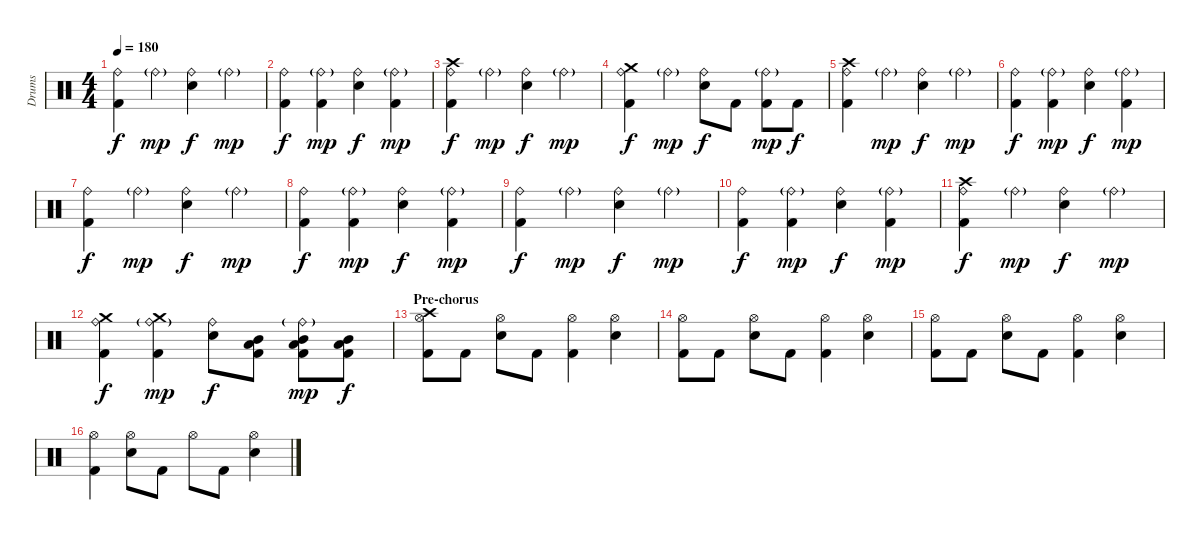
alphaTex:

\track ("Drums" "Drums") {instrument percussion}
\staff {score}
\articulation defaults
\ts (4 4)
\tempo 180
\clef neutral
\ks c
("Ride (bell)" "Kick (hit) 2").4{dy f} "Ride (bell)"{g}.4{dy mp} ("Ride (bell)" "Electric Snare (hit)").4{dy f} "Ride (bell)"{g}.4{dy mp} |
("Ride (bell)" "Kick (hit) 2").4{dy f} ("Ride (bell)"{g} "Kick (hit) 2").4{dy mp} ("Ride (bell)" "Electric Snare (hit)").4{dy f} ("Ride (bell)"{g} "Kick (hit) 2").4{dy mp} |
("Ride (bell)" "Kick (hit) 2" "Crash high (hit)").4{dy f} "Ride (bell)"{g}.4{dy mp} ("Ride (bell)" "Electric Snare (hit)").4{dy f} "Ride (bell)"{g}.4{dy mp} |
("Ride (bell)" "Kick (hit) 2" "Crash medium (hit)").4{dy f} "Ride (bell)"{g}.4{dy mp} ("Ride (bell)" "Electric Snare (hit)").8{dy f} "Kick (hit) 2".8 ("Ride (bell)"{g} "Kick (hit) 2").8{dy mp} "Kick (hit) 2".8{dy f} |
("Ride (bell)" "Kick (hit) 2" "Crash high (hit)").4 "Ride (bell)"{g}.4{dy mp} ("Ride (bell)" "Electric Snare (hit)").4{dy f} "Ride (bell)"{g}.4{dy mp} |
("Ride (bell)" "Kick (hit) 2").4{dy f} ("Ride (bell)"{g} "Kick (hit) 2").4{dy mp} ("Ride (bell)" "Electric Snare (hit)").4{dy f} ("Ride (bell)"{g} "Kick (hit) 2").4{dy mp} |
("Ride (bell)" "Kick (hit) 2").4{dy f} "Ride (bell)"{g}.4{dy mp} ("Ride (bell)" "Electric Snare (hit)").4{dy f} "Ride (bell)"{g}.4{dy mp} |
("Ride (bell)" "Kick (hit) 2").4{dy f} ("Ride (bell)"{g} "Kick (hit) 2").4{dy mp} ("Ride (bell)" "Electric Snare (hit)").4{dy f} ("Ride (bell)"{g} "Kick (hit) 2").4{dy mp} |
("Ride (bell)" "Kick (hit) 2").4{dy f} "Ride (bell)"{g}.4{dy mp} ("Ride (bell)" "Electric Snare (hit)").4{dy f} "Ride (bell)"{g}.4{dy mp} |
("Ride (bell)" "Kick (hit) 2").4{dy f} ("Ride (bell)"{g} "Kick (hit) 2").4{dy mp} ("Ride (bell)" "Electric Snare (hit)").4{dy f} ("Ride (bell)"{g} "Kick (hit) 2").4{dy mp} |
("Ride (bell)" "Kick (hit) 2" "Crash high (hit)").4{dy f} "Ride (bell)"{g}.4{dy mp} ("Ride (bell)" "Electric Snare (hit)").4{dy f} "Ride (bell)"{g}.4{dy mp} |
("Ride (bell)" "Kick (hit) 2" "Crash medium (hit)").4{dy f} ("Ride (bell)"{g} "Kick (hit) 2" "Crash medium (hit)").4{dy mp} ("Ride (bell)" "Electric Snare (hit)").8{dy f} ("Kick (hit) 2" "Mid Tom (hit)" "Low Tom (hit)").8 ("Ride (bell)"{g} "Kick (hit) 2" "Mid Tom (hit)" "Low Tom (hit)").8{dy mp} ("Kick (hit) 2" "Mid Tom (hit)" "Low Tom (hit)").8{dy f} |
\section ("" "Pre-chorus")
("Hi-Hat (open)" "Kick (hit) 2" "Crash high (hit)").8 "Kick (hit) 2".8 ("Hi-Hat (open)" "Electric Snare (hit)").8 "Kick (hit) 2".8 ("Hi-Hat (open)" "Kick (hit) 2").4 ("Hi-Hat (open)" "Electric Snare (hit)").4 |
("Hi-Hat (open)" "Kick (hit) 2").8 "Kick (hit) 2".8 ("Hi-Hat (open)" "Electric Snare (hit)").8 "Kick (hit) 2".8 ("Hi-Hat (open)" "Kick (hit) 2").4 ("Hi-Hat (open)" "Electric Snare (hit)").4 |
("Hi-Hat (open)" "Kick (hit) 2").8 "Kick (hit) 2".8 ("Hi-Hat (open)" "Electric Snare (hit)").8 "Kick (hit) 2".8 ("Hi-Hat (open)" "Kick (hit) 2").4 ("Hi-Hat (open)" "Electric Snare (hit)").4 |
("Hi-Hat (open)" "Kick (hit) 2").4 ("Hi-Hat (open)" "Electric Snare (hit)").8 "Kick (hit) 2".8 "Hi-Hat (open)".8 "Kick (hit) 2".8 ("Hi-Hat (open)" "Electric Snare (hit)").4
